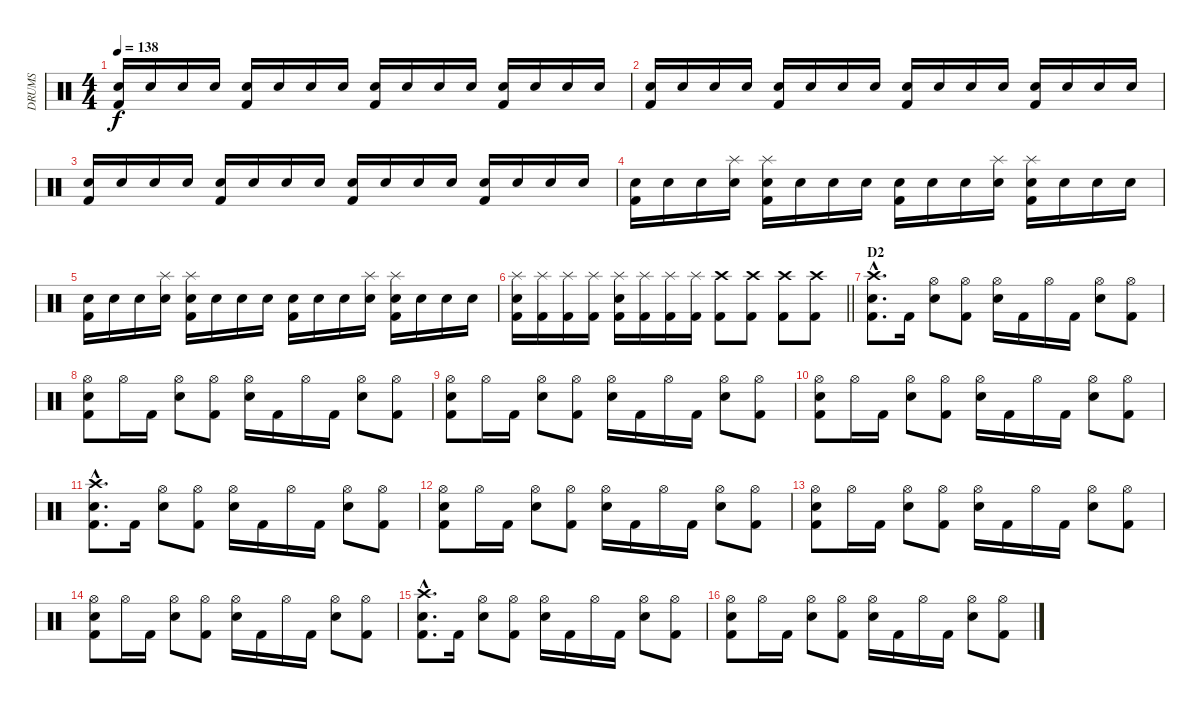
\track ("DRUMS" "DRUMS") {instrument percussion}
\staff {score}
\articulation defaults
\ts (4 4)
\tempo 138
\clef neutral
\ks c
("Snare (hit) 2" "Kick (hit) 2").16{dy f} "Snare (hit) 2".16 "Snare (hit) 2".16 "Snare (hit) 2".16 ("Snare (hit) 2" "Kick (hit) 2").16 "Snare (hit) 2".16 "Snare (hit) 2".16 "Snare (hit) 2".16 ("Snare (hit) 2" "Kick (hit) 2").16 "Snare (hit) 2".16 "Snare (hit) 2".16 "Snare (hit) 2".16 ("Snare (hit) 2" "Kick (hit) 2").16 "Snare (hit) 2".16 "Snare (hit) 2".16 "Snare (hit) 2".16 |
("Snare (hit) 2" "Kick (hit) 2").16 "Snare (hit) 2".16 "Snare (hit) 2".16 "Snare (hit) 2".16 ("Snare (hit) 2" "Kick (hit) 2").16 "Snare (hit) 2".16 "Snare (hit) 2".16 "Snare (hit) 2".16 ("Snare (hit) 2" "Kick (hit) 2").16 "Snare (hit) 2".16 "Snare (hit) 2".16 "Snare (hit) 2".16 ("Snare (hit) 2" "Kick (hit) 2").16 "Snare (hit) 2".16 "Snare (hit) 2".16 "Snare (hit) 2".16 |
("Snare (hit) 2" "Kick (hit) 2").16 "Snare (hit) 2".16 "Snare (hit) 2".16 "Snare (hit) 2".16 ("Snare (hit) 2" "Kick (hit) 2").16 "Snare (hit) 2".16 "Snare (hit) 2".16 "Snare (hit) 2".16 ("Snare (hit) 2" "Kick (hit) 2").16 "Snare (hit) 2".16 "Snare (hit) 2".16 "Snare (hit) 2".16 ("Snare (hit) 2" "Kick (hit) 2").16 "Snare (hit) 2".16 "Snare (hit) 2".16 "Snare (hit) 2".16 |
("Snare (hit) 2" "Kick (hit) 2").16 "Snare (hit) 2".16 "Snare (hit) 2".16 ("Splash (hit)" "Snare (hit) 2").16 ("Splash (hit)" "Snare (hit) 2" "Kick (hit) 2").16 "Snare (hit) 2".16 "Snare (hit) 2".16 "Snare (hit) 2".16 ("Snare (hit) 2" "Kick (hit) 2").16 "Snare (hit) 2".16 "Snare (hit) 2".16 ("Splash (hit)" "Snare (hit) 2").16 ("Splash (hit)" "Snare (hit) 2" "Kick (hit) 2").16 "Snare (hit) 2".16 "Snare (hit) 2".16 "Snare (hit) 2".16 |
("Snare (hit) 2" "Kick (hit) 2").16 "Snare (hit) 2".16 "Snare (hit) 2".16 ("Splash (hit)" "Snare (hit) 2").16 ("Splash (hit)" "Snare (hit) 2" "Kick (hit) 2").16 "Snare (hit) 2".16 "Snare (hit) 2".16 "Snare (hit) 2".16 ("Snare (hit) 2" "Kick (hit) 2").16 "Snare (hit) 2".16 "Snare (hit) 2".16 ("Splash (hit)" "Snare (hit) 2").16 ("Splash (hit)" "Snare (hit) 2" "Kick (hit) 2").16 "Snare (hit) 2".16 "Snare (hit) 2".16 "Snare (hit) 2".16 |
\barLineRight lightlight
("Splash (hit)" "Snare (hit) 2" "Kick (hit) 2").16 ("Splash (hit)" "Kick (hit) 2").16 ("Splash (hit)" "Kick (hit) 2").16 ("Splash (hit)" "Kick (hit) 2").16 ("Splash (hit)" "Snare (hit) 2" "Kick (hit) 2").16 ("Splash (hit)" "Kick (hit) 2").16 ("Splash (hit)" "Kick (hit) 2").16 ("Splash (hit)" "Kick (hit) 2").16 ("Crash high (hit)" "Kick (hit) 2").8 ("Crash high (hit)" "Kick (hit) 2").8 ("Crash high (hit)" "Kick (hit) 2").8 ("Crash high (hit)" "Kick (hit) 2").8 |
\section ("" "D2")
("Crash high (hit)"{hac} "Snare (hit) 2"{hac} "Kick (hit) 2"{hac}).8{d} "Kick (hit) 2".16 ("Hi-Hat (open)" "Snare (hit) 2").8 ("Hi-Hat (open)" "Kick (hit) 2").8 ("Hi-Hat (open)" "Snare (hit) 2").16 "Kick (hit) 2".16 "Hi-Hat (open)".16 "Kick (hit) 2".16 ("Hi-Hat (open)" "Snare (hit) 2").8 ("Hi-Hat (open)" "Kick (hit) 2").8 |
("Hi-Hat (open)" "Snare (hit) 2" "Kick (hit) 2").8 "Hi-Hat (open)".16 "Kick (hit) 2".16 ("Hi-Hat (open)" "Snare (hit) 2").8 ("Hi-Hat (open)" "Kick (hit) 2").8 ("Hi-Hat (open)" "Snare (hit) 2").16 "Kick (hit) 2".16 "Hi-Hat (open)".16 "Kick (hit) 2".16 ("Hi-Hat (open)" "Snare (hit) 2").8 ("Hi-Hat (open)" "Kick (hit) 2").8 |
("Hi-Hat (open)" "Snare (hit) 2" "Kick (hit) 2").8 "Hi-Hat (open)".16 "Kick (hit) 2".16 ("Hi-Hat (open)" "Snare (hit) 2").8 ("Hi-Hat (open)" "Kick (hit) 2").8 ("Hi-Hat (open)" "Snare (hit) 2").16 "Kick (hit) 2".16 "Hi-Hat (open)".16 "Kick (hit) 2".16 ("Hi-Hat (open)" "Snare (hit) 2").8 ("Hi-Hat (open)" "Kick (hit) 2").8 |
("Hi-Hat (open)" "Snare (hit) 2" "Kick (hit) 2").8 "Hi-Hat (open)".16 "Kick (hit) 2".16 ("Hi-Hat (open)" "Snare (hit) 2").8 ("Hi-Hat (open)" "Kick (hit) 2").8 ("Hi-Hat (open)" "Snare (hit) 2").16 "Kick (hit) 2".16 "Hi-Hat (open)".16 "Kick (hit) 2".16 ("Hi-Hat (open)" "Snare (hit) 2").8 ("Hi-Hat (open)" "Kick (hit) 2").8 |
("Crash high (hit)"{hac} "Snare (hit) 2"{hac} "Kick (hit) 2"{hac}).8{d} "Kick (hit) 2".16 ("Hi-Hat (open)" "Snare (hit) 2").8 ("Hi-Hat (open)" "Kick (hit) 2").8 ("Hi-Hat (open)" "Snare (hit) 2").16 "Kick (hit) 2".16 "Hi-Hat (open)".16 "Kick (hit) 2".16 ("Hi-Hat (open)" "Snare (hit) 2").8 ("Hi-Hat (open)" "Kick (hit) 2").8 |
("Hi-Hat (open)" "Snare (hit) 2" "Kick (hit) 2").8 "Hi-Hat (open)".16 "Kick (hit) 2".16 ("Hi-Hat (open)" "Snare (hit) 2").8 ("Hi-Hat (open)" "Kick (hit) 2").8 ("Hi-Hat (open)" "Snare (hit) 2").16 "Kick (hit) 2".16 "Hi-Hat (open)".16 "Kick (hit) 2".16 ("Hi-Hat (open)" "Snare (hit) 2").8 ("Hi-Hat (open)" "Kick (hit) 2").8 |
("Hi-Hat (open)" "Snare (hit) 2" "Kick (hit) 2").8 "Hi-Hat (open)".16 "Kick (hit) 2".16 ("Hi-Hat (open)" "Snare (hit) 2").8 ("Hi-Hat (open)" "Kick (hit) 2").8 ("Hi-Hat (open)" "Snare (hit) 2").16 "Kick (hit) 2".16 "Hi-Hat (open)".16 "Kick (hit) 2".16 ("Hi-Hat (open)" "Snare (hit) 2").8 ("Hi-Hat (open)" "Kick (hit) 2").8 |
("Hi-Hat (open)" "Snare (hit) 2" "Kick (hit) 2").8 "Hi-Hat (open)".16 "Kick (hit) 2".16 ("Hi-Hat (open)" "Snare (hit) 2").8 ("Hi-Hat (open)" "Kick (hit) 2").8 ("Hi-Hat (open)" "Snare (hit) 2").16 "Kick (hit) 2".16 "Hi-Hat (open)".16 "Kick (hit) 2".16 ("Hi-Hat (open)" "Snare (hit) 2").8 ("Hi-Hat (open)" "Kick (hit) 2").8 |
("Crash high (hit)"{hac} "Snare (hit) 2"{hac} "Kick (hit) 2"{hac}).8{d} "Kick (hit) 2".16 ("Hi-Hat (open)" "Snare (hit) 2").8 ("Hi-Hat (open)" "Kick (hit) 2").8 ("Hi-Hat (open)" "Snare (hit) 2").16 "Kick (hit) 2".16 "Hi-Hat (open)".16 "Kick (hit) 2".16 ("Hi-Hat (open)" "Snare (hit) 2").8 ("Hi-Hat (open)" "Kick (hit) 2").8 |
("Hi-Hat (open)" "Snare (hit) 2" "Kick (hit) 2").8 "Hi-Hat (open)".16 "Kick (hit) 2".16 ("Hi-Hat (open)" "Snare (hit) 2").8 ("Hi-Hat (open)" "Kick (hit) 2").8 ("Hi-Hat (open)" "Snare (hit) 2").16 "Kick (hit) 2".16 "Hi-Hat (open)".16 "Kick (hit) 2".16 ("Hi-Hat (open)" "Snare (hit) 2").8 ("Hi-Hat (open)" "Kick (hit) 2").8
